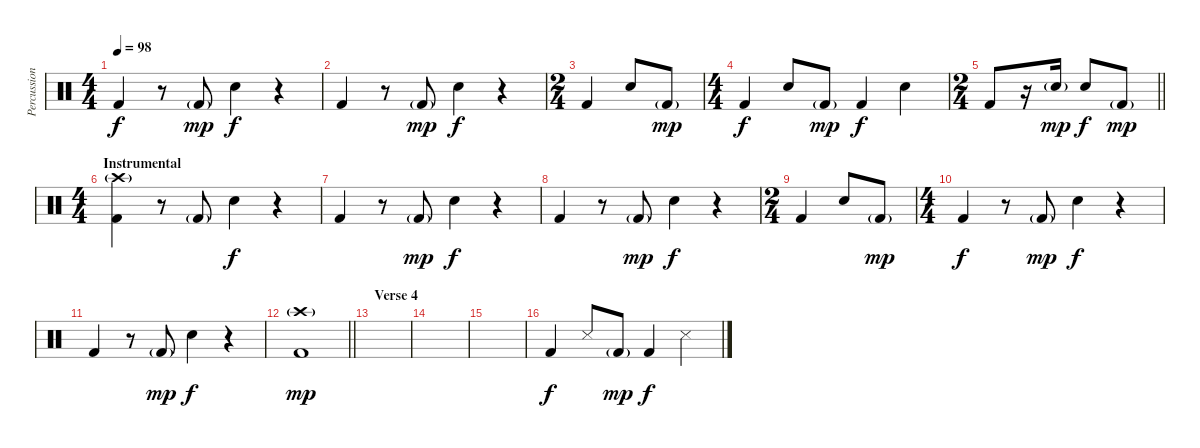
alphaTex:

\track ("Percussion" "Percussion") {instrument percussion}
\staff {score}
\articulation defaults
\ts (4 4)
\tempo 98
\clef neutral
\ks c "Kick (hit) 2".4{dy f}
r.8 "Kick (hit) 2"{g}.8{dy mp} "Snare (hit) 2".4{dy f} r.4 |
"Kick (hit) 2".4 r.8 "Kick (hit) 2"{g}.8{dy mp} "Snare (hit) 2".4{dy f} r.4 |
\ts (2 4)
"Kick (hit) 2".4 "Snare (hit) 2".8 "Kick (hit) 2"{g}.8{dy mp} |
\ts (4 4)
"Kick (hit) 2".4{dy f} "Snare (hit) 2".8 "Kick (hit) 2"{g}.8{dy mp} "Kick (hit) 2".4{dy f} "Snare (hit) 2".4 |
\ts (2 4)
\barLineRight lightlight "Kick (hit) 2".8
r.16 "Snare (hit) 2"{g}.16{dy mp} "Snare (hit) 2".8{dy f} "Kick (hit) 2"{g}.8{dy mp} |
\ts (4 4)
\section ("" "Instrumental")
("Crash high (hit)"{g} "Kick (hit) 2").4 r.8 "Kick (hit) 2"{g}.8 "Snare (hit) 2".4{dy f} r.4 |
"Kick (hit) 2".4 r.8 "Kick (hit) 2"{g}.8{dy mp} "Snare (hit) 2".4{dy f} r.4 |
"Kick (hit) 2".4 r.8 "Kick (hit) 2"{g}.8{dy mp} "Snare (hit) 2".4{dy f} r.4 |
\ts (2 4)
"Kick (hit) 2".4 "Snare (hit) 2".8 "Kick (hit) 2"{g}.8{dy mp} |
\ts (4 4)
"Kick (hit) 2".4{dy f} r.8 "Kick (hit) 2"{g}.8{dy mp} "Snare (hit) 2".4{dy f} r.4 |
"Kick (hit) 2".4 r.8 "Kick (hit) 2"{g}.8{dy mp} "Snare (hit) 2".4{dy f} r.4 |
\barLineRight lightlight
("Crash high (hit)"{g} "Kick (hit) 2").1{dy mp} |
\section ("" "Verse 4")
|
|
|
"Kick (hit) 2".4{dy f} "Snare (side stick) 3".8 "Kick (hit) 2"{g}.8{dy mp} "Kick (hit) 2".4{dy f} "Snare (side stick) 3".4
